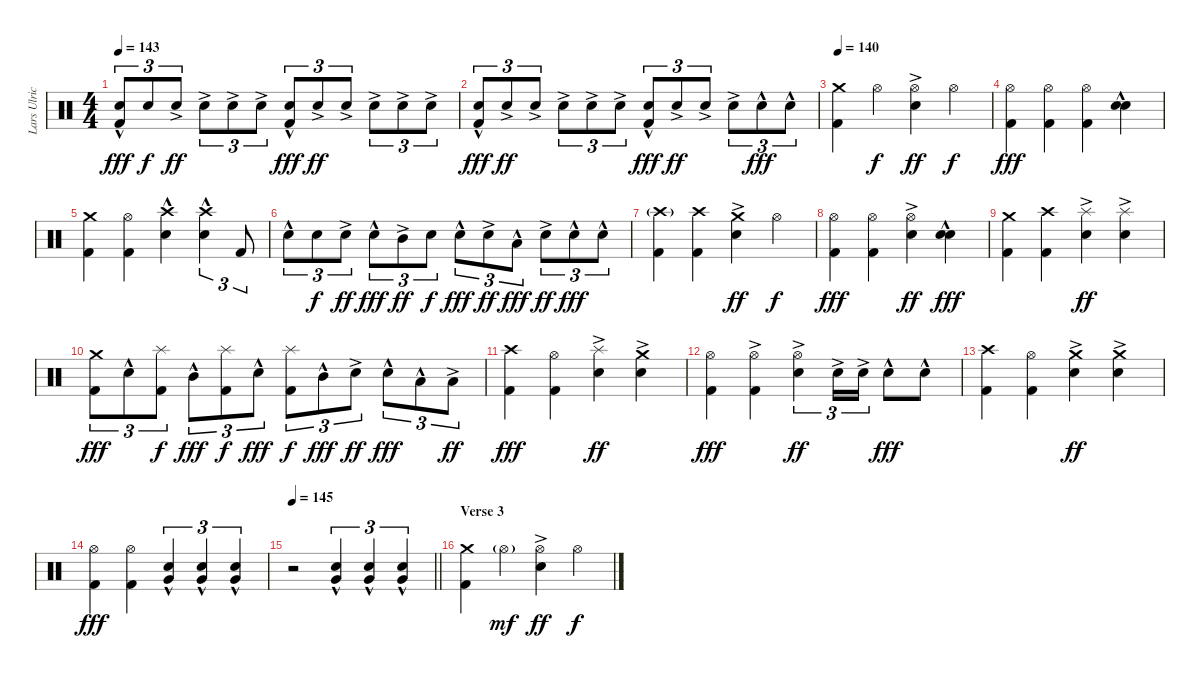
\track ("Lars Ulrich (Drums)" "Lars Ulric") {instrument percussion}
\staff {score}
\articulation defaults
\ts (4 4)
\tempo 143
\clef neutral
\ks c
("Electric Snare (hit)"{hac} "Kick (hit) 2").8{tu (3 2) dy fff} "Electric Snare (hit)".8{tu (3 2) dy f} "Electric Snare (hit)"{ac}.8{tu (3 2) dy ff} "Electric Snare (hit)"{ac}.8{tu (3 2)} "Electric Snare (hit)"{ac}.8{tu (3 2)} "Electric Snare (hit)"{ac}.8{tu (3 2)} ("Electric Snare (hit)"{hac} "Kick (hit) 2").8{tu (3 2) dy fff} "Electric Snare (hit)"{ac}.8{tu (3 2) dy ff} "Electric Snare (hit)"{ac}.8{tu (3 2)} "Electric Snare (hit)"{ac}.8{tu (3 2)} "Electric Snare (hit)"{ac}.8{tu (3 2)} "Electric Snare (hit)"{ac}.8{tu (3 2)} |
("Electric Snare (hit)"{hac} "Kick (hit) 2").8{tu (3 2) dy fff} "Electric Snare (hit)"{ac}.8{tu (3 2) dy ff} "Electric Snare (hit)"{ac}.8{tu (3 2)} "Electric Snare (hit)"{ac}.8{tu (3 2)} "Electric Snare (hit)"{ac}.8{tu (3 2)} "Electric Snare (hit)"{ac}.8{tu (3 2)} ("Electric Snare (hit)"{hac} "Kick (hit) 2").8{tu (3 2) dy fff} "Electric Snare (hit)"{ac}.8{tu (3 2) dy ff} "Electric Snare (hit)"{ac}.8{tu (3 2)} "Electric Snare (hit)"{ac}.8{tu (3 2)} "Electric Snare (hit)"{hac}.8{tu (3 2) dy fff} "Electric Snare (hit)"{hac}.8{tu (3 2)} |
\tempo 140
("Crash medium (hit)" "Kick (hit) 2").4 "Hi-Hat (open)".4{dy f} ("Hi-Hat (open)"{ac} "Electric Snare (hit)"{ac}).4{dy ff} "Hi-Hat (open)".4{dy f} |
("Hi-Hat (open)" "Kick (hit) 2").4{dy fff} ("Hi-Hat (open)" "Kick (hit) 2").4 ("Hi-Hat (open)" "Kick (hit) 2").4 ("Electric Snare (hit)"{hac} "Electric Snare (hit)"{hac}).4{bd 120} |
("Crash medium (hit)" "Kick (hit) 2").4 ("Hi-Hat (open)" "Kick (hit) 2").4 ("Crash high (hit)" "Electric Snare (hit)"{hac}).4 ("Crash high (hit)" "Electric Snare (hit)"{hac}).4{tu (3 2)} "Kick (hit) 2".8{tu (3 2)} |
"Electric Snare (hit)"{hac}.8{tu (3 2)} "Electric Snare (hit)".8{tu (3 2) dy f} "Electric Snare (hit)"{ac}.8{tu (3 2) dy ff} "Electric Snare (hit)"{hac}.8{tu (3 2) dy fff} "Mid Tom (hit)"{ac}.8{tu (3 2) dy ff} "Electric Snare (hit)".8{tu (3 2) dy f} "Electric Snare (hit)"{hac}.8{tu (3 2) dy fff} "Electric Snare (hit)"{ac}.8{tu (3 2) dy ff} "Low Tom (hit)"{hac}.8{tu (3 2) dy fff} "Electric Snare (hit)"{ac}.8{tu (3 2) dy ff} "Electric Snare (hit)"{hac}.8{tu (3 2) dy fff} "Electric Snare (hit)"{hac}.8{tu (3 2)} |
("Crash high (hit)"{g} "Kick (hit) 2").4 ("Crash high (hit)" "Kick (hit) 2").4 ("Crash medium (hit)" "Electric Snare (hit)"{ac}).4{dy ff} "Hi-Hat (open)".4{dy f} |
("Hi-Hat (open)" "Kick (hit) 2").4{dy fff} ("Hi-Hat (open)" "Kick (hit) 2").4 ("Hi-Hat (open)" "Electric Snare (hit)"{ac}).4{dy ff} ("Electric Snare (hit)"{hac} "Electric Snare (hit)"{hac}).4{bd 120 dy fff} |
("Crash medium (hit)" "Kick (hit) 2").4 ("Crash high (hit)" "Kick (hit) 2").4 ("Splash (hit)" "Electric Snare (hit)"{ac}).4{dy ff} ("Splash (hit)" "Electric Snare (hit)"{ac}).4 |
("Crash medium (hit)" "Kick (hit) 2").8{tu (3 2) dy fff} "Electric Snare (hit)"{hac}.8{tu (3 2)} ("Splash (hit)" "Kick (hit) 2").8{tu (3 2) dy f} "Mid Tom (hit)"{hac}.8{tu (3 2) dy fff} ("Splash (hit)" "Kick (hit) 2").8{tu (3 2) dy f} "Electric Snare (hit)"{hac}.8{tu (3 2) dy fff} ("Splash (hit)" "Kick (hit) 2").8{tu (3 2) dy f} "Mid Tom (hit)"{hac}.8{tu (3 2) dy fff} "Electric Snare (hit)"{ac}.8{tu (3 2) dy ff} "Electric Snare (hit)"{hac}.8{tu (3 2) dy fff} "Low Tom (hit)"{hac}.8{tu (3 2)} "Low Tom (hit)"{ac}.8{tu (3 2) dy ff} |
("Crash high (hit)" "Kick (hit) 2").4{dy fff} ("Hi-Hat (open)" "Kick (hit) 2").4 ("Splash (hit)" "Electric Snare (hit)"{ac}).4{dy ff} ("Crash medium (hit)" "Electric Snare (hit)"{ac}).4 |
("Hi-Hat (open)" "Kick (hit) 2").4{dy fff} ("Hi-Hat (open)"{ac} "Kick (hit) 2").4 ("Hi-Hat (open)"{ac} "Electric Snare (hit)"{ac}).4{tu (3 2) dy ff} "Electric Snare (hit)"{ac}.16{tu (3 2)} "Electric Snare (hit)"{ac}.16{tu (3 2)} "Electric Snare (hit)"{hac}.8{dy fff} "Electric Snare (hit)"{hac}.8 |
("Crash high (hit)" "Kick (hit) 2").4 ("Hi-Hat (open)" "Kick (hit) 2").4 ("Crash medium (hit)" "Electric Snare (hit)"{ac}).4{dy ff} ("Crash medium (hit)" "Electric Snare (hit)"{ac}).4 |
("Hi-Hat (open)" "Kick (hit) 2").4{dy fff} ("Hi-Hat (open)" "Kick (hit) 2").4 ("Electric Snare (hit)"{hac} "Very Low Tom (hit)"{hac}).4{tu (3 2)} ("Electric Snare (hit)"{hac} "Very Low Tom (hit)"{hac}).4{tu (3 2)} ("Electric Snare (hit)"{hac} "Very Low Tom (hit)"{hac}).4{tu (3 2)} |
\tempo 145
\barLineRight lightlight
r.2 ("Electric Snare (hit)"{hac} "Very Low Tom (hit)"{hac}).4{tu (3 2)} ("Electric Snare (hit)"{hac} "Very Low Tom (hit)"{hac}).4{tu (3 2)} ("Electric Snare (hit)"{hac} "Very Low Tom (hit)"{hac}).4{tu (3 2)} |
\section ("" "Verse 3")
("Crash medium (hit)" "Kick (hit) 2").4 "Hi-Hat (open)"{g}.4{dy mf} ("Hi-Hat (open)"{ac} "Electric Snare (hit)"{ac}).4{dy ff} "Hi-Hat (open)".4{dy f}
